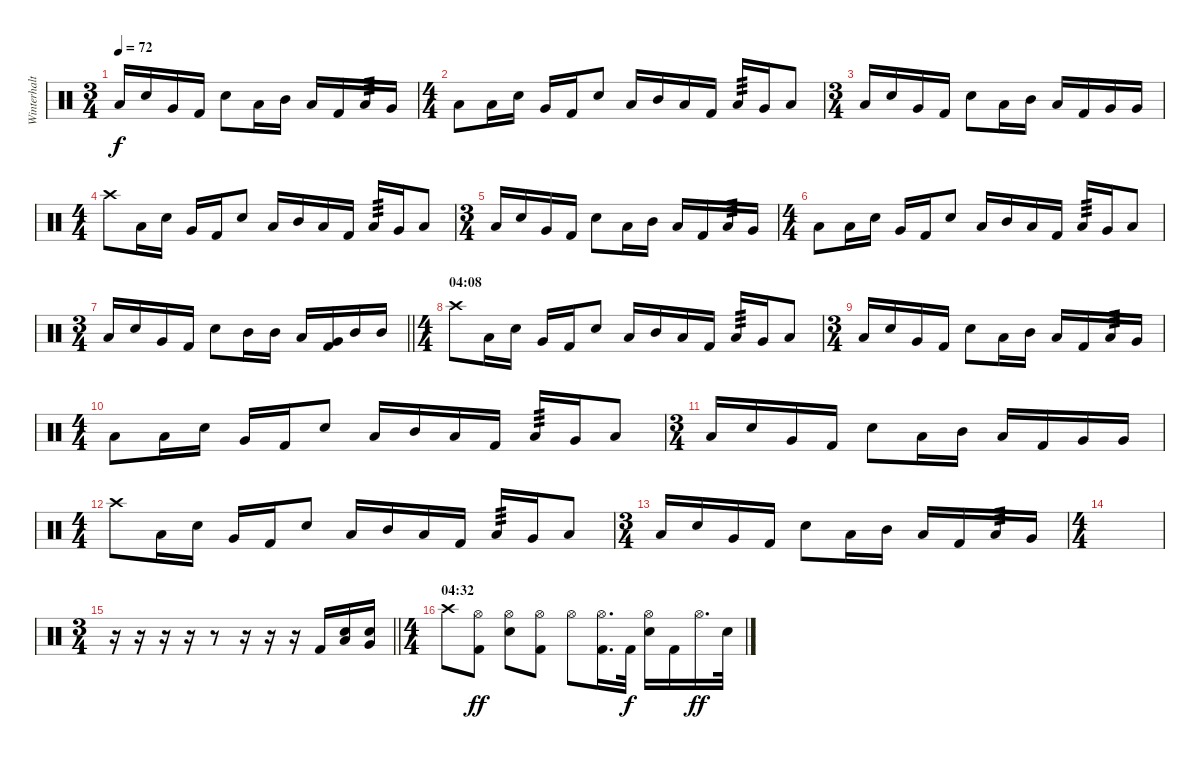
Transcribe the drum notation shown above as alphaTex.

\track ("Winterhalten" "Winterhalt") {instrument percussion}
\staff {score}
\articulation defaults
\ts (3 4)
\tempo 72
\clef neutral
\ks c "Low Tom (hit)".16{dy f} "Electric Snare (hit)".16 "Very Low Tom (hit)".16 "Kick (hit) 2".16 "Electric Snare (hit)".8 "Low Tom (hit)".16 "Mid Tom (hit)".16 "Low Tom (hit)".16 "Kick (hit) 2".16 "Low Tom (hit)".16{tp 3} "Very Low Tom (hit)".16
|
\ts (4 4)
"Low Floor Tom (hit)".8 "Low Tom (hit)".16 "Electric Snare (hit)".16 "Very Low Tom (hit)".16 "Kick (hit) 2".16 "Electric Snare (hit)".8 "Low Tom (hit)".16 "Mid Tom (hit)".16 "Low Tom (hit)".16 "Kick (hit) 2".16 "Low Tom (hit)".16{tp 3} "Very Low Tom (hit)".16 "Low Floor Tom (hit)".8 |
\ts (3 4)
"Low Tom (hit)".16 "Electric Snare (hit)".16 "Very Low Tom (hit)".16 "Kick (hit) 2".16 "Electric Snare (hit)".8 "Low Tom (hit)".16 "Mid Tom (hit)".16 "Low Tom (hit)".16 "Kick (hit) 2".16 "Very Low Tom (hit)".16 "Very Low Tom (hit)".16 |
\ts (4 4)
"Crash high (hit)".8 "Low Tom (hit)".16 "Electric Snare (hit)".16 "Very Low Tom (hit)".16 "Kick (hit) 2".16 "Electric Snare (hit)".8 "Low Tom (hit)".16 "Mid Tom (hit)".16 "Low Tom (hit)".16 "Kick (hit) 2".16 "Low Tom (hit)".16{tp 3} "Very Low Tom (hit)".16 "Low Floor Tom (hit)".8 |
\ts (3 4)
"Low Tom (hit)".16 "Electric Snare (hit)".16 "Very Low Tom (hit)".16 "Kick (hit) 2".16 "Electric Snare (hit)".8 "Low Tom (hit)".16 "Mid Tom (hit)".16 "Low Tom (hit)".16 "Kick (hit) 2".16 "Low Tom (hit)".16{tp 3} "Very Low Tom (hit)".16 |
\ts (4 4)
"Low Floor Tom (hit)".8 "Low Tom (hit)".16 "Electric Snare (hit)".16 "Very Low Tom (hit)".16 "Kick (hit) 2".16 "Electric Snare (hit)".8 "Low Tom (hit)".16 "Mid Tom (hit)".16 "Low Tom (hit)".16 "Kick (hit) 2".16 "Low Tom (hit)".16{tp 3} "Very Low Tom (hit)".16 "Low Floor Tom (hit)".8 |
\ts (3 4)
\barLineRight lightlight "Low Tom (hit)".16 "Electric Snare (hit)".16 "Very Low Tom (hit)".16 "Kick (hit) 2".16 "Electric Snare (hit)".8 "Mid Tom (hit)".16 "Mid Tom (hit)".16 "Low Tom (hit)".16
("Very Low Tom (hit)" "Kick (hit) 2").16 "Mid Tom (hit)".16 "Mid Tom (hit)".16 |
\ts (4 4)
\section ("" "04:08")
"Crash high (hit)".8 "Low Tom (hit)".16 "Electric Snare (hit)".16 "Very Low Tom (hit)".16 "Kick (hit) 2".16 "Electric Snare (hit)".8 "Low Tom (hit)".16 "Mid Tom (hit)".16 "Low Tom (hit)".16 "Kick (hit) 2".16 "Low Tom (hit)".16{tp 3} "Very Low Tom (hit)".16 "Low Floor Tom (hit)".8 |
\ts (3 4)
"Low Tom (hit)".16 "Electric Snare (hit)".16 "Very Low Tom (hit)".16 "Kick (hit) 2".16 "Electric Snare (hit)".8 "Low Tom (hit)".16 "Mid Tom (hit)".16 "Low Tom (hit)".16 "Kick (hit) 2".16 "Low Tom (hit)".16{tp 3} "Very Low Tom (hit)".16 |
\ts (4 4)
"Low Floor Tom (hit)".8 "Low Tom (hit)".16 "Electric Snare (hit)".16 "Very Low Tom (hit)".16 "Kick (hit) 2".16 "Electric Snare (hit)".8 "Low Tom (hit)".16 "Mid Tom (hit)".16 "Low Tom (hit)".16 "Kick (hit) 2".16 "Low Tom (hit)".16{tp 3} "Very Low Tom (hit)".16 "Low Floor Tom (hit)".8 |
\ts (3 4)
"Low Tom (hit)".16 "Electric Snare (hit)".16 "Very Low Tom (hit)".16 "Kick (hit) 2".16 "Electric Snare (hit)".8 "Low Tom (hit)".16 "Mid Tom (hit)".16 "Low Tom (hit)".16 "Kick (hit) 2".16 "Very Low Tom (hit)".16 "Very Low Tom (hit)".16 |
\ts (4 4)
"Crash high (hit)".8 "Low Tom (hit)".16 "Electric Snare (hit)".16 "Very Low Tom (hit)".16 "Kick (hit) 2".16 "Electric Snare (hit)".8 "Low Tom (hit)".16 "Mid Tom (hit)".16 "Low Tom (hit)".16 "Kick (hit) 2".16 "Low Tom (hit)".16{tp 3} "Very Low Tom (hit)".16 "Low Floor Tom (hit)".8 |
\ts (3 4)
"Low Tom (hit)".16 "Electric Snare (hit)".16 "Very Low Tom (hit)".16 "Kick (hit) 2".16 "Electric Snare (hit)".8 "Low Tom (hit)".16 "Mid Tom (hit)".16 "Low Tom (hit)".16 "Kick (hit) 2".16 "Low Tom (hit)".16{tp 3} "Very Low Tom (hit)".16 |
\ts (4 4)
|
\ts (3 4)
\barLineRight lightlight
r.16 r.16 r.16 r.16 r.8 r.16 r.16 r.16 "Kick (hit) 2".16 ("Electric Snare (hit)" "Low Tom (hit)").16 ("Snare (hit) 2" "Very Low Tom (hit)").16 |
\ts (4 4)
\section ("" "04:32")
"Crash high (hit)".8 ("Hi-Hat (open)" "Kick (hit) 2").8{dy ff} ("Hi-Hat (open)" "Electric Snare (hit)").8 ("Hi-Hat (open)" "Kick (hit) 2").8 "Hi-Hat (open)".8 ("Hi-Hat (open)" "Kick (hit) 2").16{d} "Kick (hit) 2".32{dy f} ("Hi-Hat (open)" "Electric Snare (hit)").16 "Kick (hit) 2".16 "Hi-Hat (open)".16{d dy ff} "Electric Snare (hit)".32
